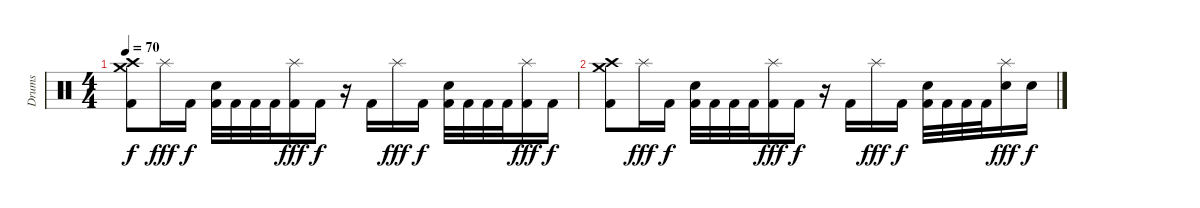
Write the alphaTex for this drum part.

\track ("Drums" "Drums") {instrument percussion}
\staff {score}
\articulation defaults
\ts (4 4)
\tempo 70
\clef neutral
\ks c
("Crash high (hit)" "Crash medium (hit)" "Kick (hit) 2").8{dy f} "Splash (hit)".16{dy fff} "Kick (hit) 2".16{dy f} ("Electric Snare (hit)" "Kick (hit) 2").32 "Kick (hit) 2".32 "Kick (hit) 2".32 "Kick (hit) 2".32 ("Splash (hit)" "Kick (hit) 2").16{dy fff} "Kick (hit) 2".16{dy f} r.16 "Kick (hit) 2".16 "Splash (hit)".16{dy fff} "Kick (hit) 2".16{dy f} ("Electric Snare (hit)" "Kick (hit) 2").32 "Kick (hit) 2".32 "Kick (hit) 2".32 "Kick (hit) 2".32 ("Splash (hit)" "Kick (hit) 2").16{dy fff} "Kick (hit) 2".16{dy f} |
("Crash high (hit)" "Crash medium (hit)" "Kick (hit) 2").8 "Splash (hit)".16{dy fff} "Kick (hit) 2".16{dy f} ("Electric Snare (hit)" "Kick (hit) 2").32 "Kick (hit) 2".32 "Kick (hit) 2".32 "Kick (hit) 2".32 ("Splash (hit)" "Kick (hit) 2").16{dy fff} "Kick (hit) 2".16{dy f} r.16 "Kick (hit) 2".16 "Splash (hit)".16{dy fff} "Kick (hit) 2".16{dy f} ("Electric Snare (hit)" "Kick (hit) 2").32 "Kick (hit) 2".32 "Kick (hit) 2".32 "Kick (hit) 2".32 ("Splash (hit)" "Electric Snare (hit)").16{dy fff} "Electric Snare (hit)".16{dy f}
